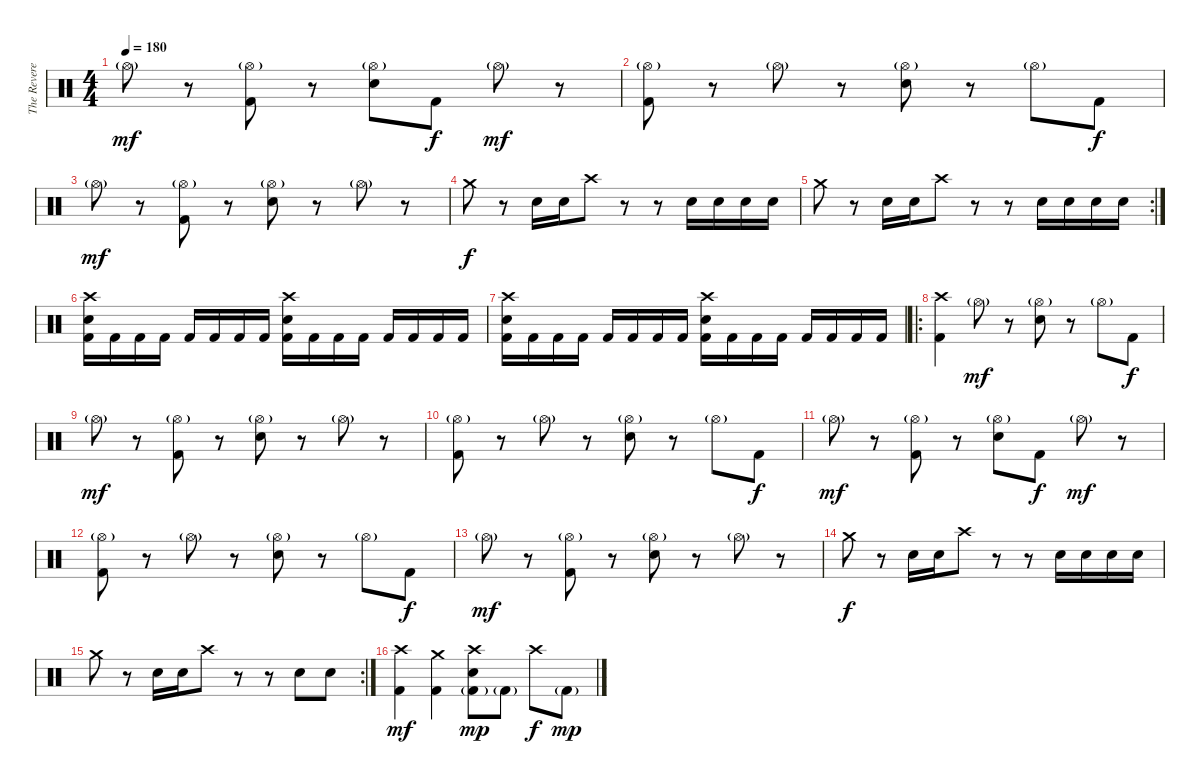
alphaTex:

\track ("The Reverend" "The Revere") {instrument percussion}
\staff {score}
\articulation defaults
\ts (4 4)
\tempo 180
\clef neutral
\ks c "Hi-Hat (open)"{g}.8{dy mf}
r.8 ("Hi-Hat (open)"{g} "Kick (hit) 2").8 r.8 ("Hi-Hat (open)"{g} "Snare (hit) 2").8 "Kick (hit) 2".8{dy f} "Hi-Hat (open)"{g}.8{dy mf} r.8 |
("Hi-Hat (open)"{g} "Kick (hit) 2").8 r.8 "Hi-Hat (open)"{g}.8 r.8 ("Hi-Hat (open)"{g} "Snare (hit) 2").8 r.8 "Hi-Hat (open)"{g}.8 "Kick (hit) 2".8{dy f} |
"Hi-Hat (open)"{g}.8{dy mf} r.8 ("Hi-Hat (open)"{g} "Kick (hit) 2").8 r.8 ("Hi-Hat (open)"{g} "Snare (hit) 2").8 r.8 "Hi-Hat (open)"{g}.8 r.8 |
"Crash medium (hit)".8{dy f} r.8 "Snare (hit) 2".16 "Snare (hit) 2".16 "Crash high (hit)".8 r.8 r.8 "Snare (hit) 2".16 "Snare (hit) 2".16 "Snare (hit) 2".16 "Snare (hit) 2".16 |
\rc 2 "Crash medium (hit)".8
r.8 "Snare (hit) 2".16 "Snare (hit) 2".16 "Crash high (hit)".8 r.8 r.8 "Snare (hit) 2".16 "Snare (hit) 2".16 "Snare (hit) 2".16 "Snare (hit) 2".16 |
("Crash high (hit)" "Snare (hit) 2" "Kick (hit) 2").16 "Kick (hit) 2".16 "Kick (hit) 2".16 "Kick (hit) 2".16 "Kick (hit) 2".16 "Kick (hit) 2".16 "Kick (hit) 2".16 "Kick (hit) 2".16 ("Crash high (hit)" "Snare (hit) 2" "Kick (hit) 2").16 "Kick (hit) 2".16 "Kick (hit) 2".16 "Kick (hit) 2".16 "Kick (hit) 2".16 "Kick (hit) 2".16 "Kick (hit) 2".16 "Kick (hit) 2".16 |
("Crash high (hit)" "Snare (hit) 2" "Kick (hit) 2").16 "Kick (hit) 2".16 "Kick (hit) 2".16 "Kick (hit) 2".16 "Kick (hit) 2".16 "Kick (hit) 2".16 "Kick (hit) 2".16 "Kick (hit) 2".16 ("Crash high (hit)" "Snare (hit) 2" "Kick (hit) 2").16 "Kick (hit) 2".16 "Kick (hit) 2".16 "Kick (hit) 2".16 "Kick (hit) 2".16 "Kick (hit) 2".16 "Kick (hit) 2".16 "Kick (hit) 2".16 |
\ro
("Crash high (hit)" "Kick (hit) 2").4 "Hi-Hat (open)"{g}.8{dy mf} r.8 ("Hi-Hat (open)"{g} "Snare (hit) 2").8 r.8 "Hi-Hat (open)"{g}.8 "Kick (hit) 2".8{dy f} |
"Hi-Hat (open)"{g}.8{dy mf} r.8 ("Hi-Hat (open)"{g} "Kick (hit) 2").8 r.8 ("Hi-Hat (open)"{g} "Snare (hit) 2").8 r.8 "Hi-Hat (open)"{g}.8 r.8 |
("Hi-Hat (open)"{g} "Kick (hit) 2").8 r.8 "Hi-Hat (open)"{g}.8 r.8 ("Hi-Hat (open)"{g} "Snare (hit) 2").8 r.8 "Hi-Hat (open)"{g}.8 "Kick (hit) 2".8{dy f} |
"Hi-Hat (open)"{g}.8{dy mf} r.8 ("Hi-Hat (open)"{g} "Kick (hit) 2").8 r.8 ("Hi-Hat (open)"{g} "Snare (hit) 2").8 "Kick (hit) 2".8{dy f} "Hi-Hat (open)"{g}.8{dy mf} r.8 |
("Hi-Hat (open)"{g} "Kick (hit) 2").8 r.8 "Hi-Hat (open)"{g}.8 r.8 ("Hi-Hat (open)"{g} "Snare (hit) 2").8 r.8 "Hi-Hat (open)"{g}.8 "Kick (hit) 2".8{dy f} |
"Hi-Hat (open)"{g}.8{dy mf} r.8 ("Hi-Hat (open)"{g} "Kick (hit) 2").8 r.8 ("Hi-Hat (open)"{g} "Snare (hit) 2").8 r.8 "Hi-Hat (open)"{g}.8 r.8 |
"Crash medium (hit)".8{dy f} r.8 "Snare (hit) 2".16 "Snare (hit) 2".16 "Crash high (hit)".8 r.8 r.8 "Snare (hit) 2".16 "Snare (hit) 2".16 "Snare (hit) 2".16 "Snare (hit) 2".16 |
\rc 2 "Crash medium (hit)".8
r.8 "Snare (hit) 2".16 "Snare (hit) 2".16 "Crash high (hit)".8 r.8 r.8 "Snare (hit) 2".8 "Snare (hit) 2".8 |
("Crash high (hit)" "Kick (hit) 2").4{dy mf} ("Crash medium (hit)" "Kick (hit) 2").4 ("Crash high (hit)" "Snare (hit) 2" "Kick (hit) 2"{g}).8{dy mp} "Kick (hit) 2"{g}.8 "Crash high (hit)".8{dy f} "Kick (hit) 2"{g}.8{dy mp}
